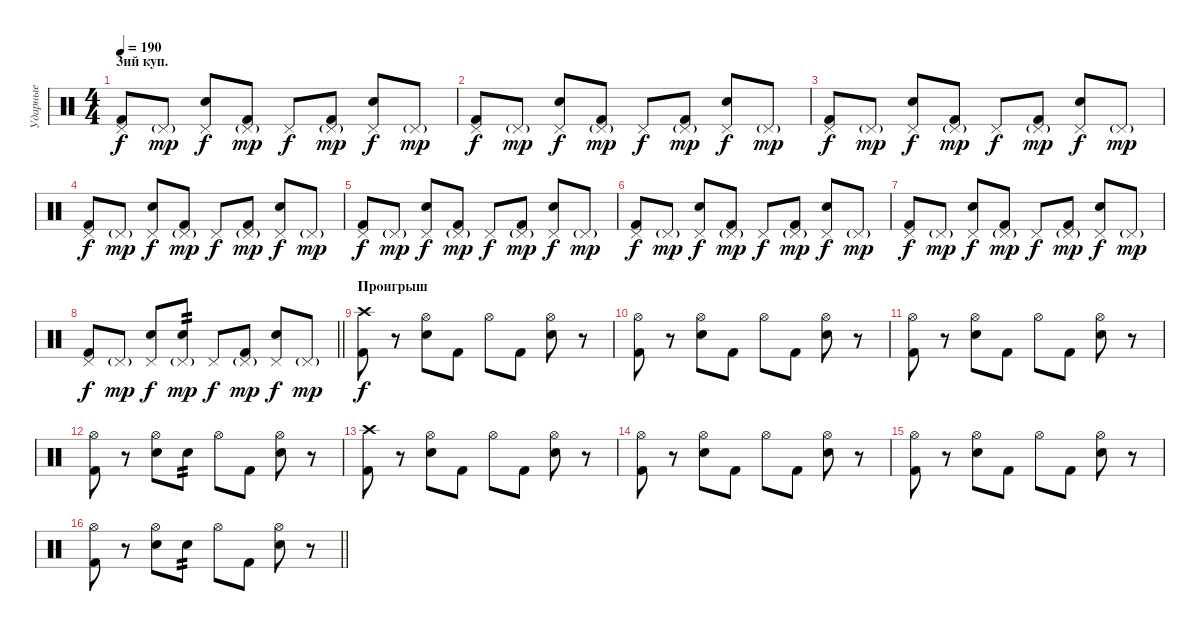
\track ("Ударные" "Ударные") {instrument percussion}
\staff {score}
\articulation defaults
\ts (4 4)
\section ("" "3ий куп.")
\tempo 190
\clef neutral
\ks c
("Pedal Hi-Hat (hit)" "Kick (hit) 2").8{dy f} "Pedal Hi-Hat (hit)"{g}.8{dy mp} ("Pedal Hi-Hat (hit)" "Electric Snare (hit)").8{dy f} ("Pedal Hi-Hat (hit)"{g} "Kick (hit) 2").8{dy mp} "Pedal Hi-Hat (hit)".8{dy f} ("Pedal Hi-Hat (hit)"{g} "Kick (hit) 2").8{dy mp} ("Pedal Hi-Hat (hit)" "Electric Snare (hit)").8{dy f} "Pedal Hi-Hat (hit)"{g}.8{dy mp} |
("Pedal Hi-Hat (hit)" "Kick (hit) 2").8{dy f} "Pedal Hi-Hat (hit)"{g}.8{dy mp} ("Pedal Hi-Hat (hit)" "Electric Snare (hit)").8{dy f} ("Pedal Hi-Hat (hit)"{g} "Kick (hit) 2").8{dy mp} "Pedal Hi-Hat (hit)".8{dy f} ("Pedal Hi-Hat (hit)"{g} "Kick (hit) 2").8{dy mp} ("Pedal Hi-Hat (hit)" "Electric Snare (hit)").8{dy f} "Pedal Hi-Hat (hit)"{g}.8{dy mp} |
("Pedal Hi-Hat (hit)" "Kick (hit) 2").8{dy f} "Pedal Hi-Hat (hit)"{g}.8{dy mp} ("Pedal Hi-Hat (hit)" "Electric Snare (hit)").8{dy f} ("Pedal Hi-Hat (hit)"{g} "Kick (hit) 2").8{dy mp} "Pedal Hi-Hat (hit)".8{dy f} ("Pedal Hi-Hat (hit)"{g} "Kick (hit) 2").8{dy mp} ("Pedal Hi-Hat (hit)" "Electric Snare (hit)").8{dy f} "Pedal Hi-Hat (hit)"{g}.8{dy mp} |
("Pedal Hi-Hat (hit)" "Kick (hit) 2").8{dy f} "Pedal Hi-Hat (hit)"{g}.8{dy mp} ("Pedal Hi-Hat (hit)" "Electric Snare (hit)").8{dy f} ("Pedal Hi-Hat (hit)"{g} "Kick (hit) 2").8{dy mp} "Pedal Hi-Hat (hit)".8{dy f} ("Pedal Hi-Hat (hit)"{g} "Kick (hit) 2").8{dy mp} ("Pedal Hi-Hat (hit)" "Electric Snare (hit)").8{dy f} "Pedal Hi-Hat (hit)"{g}.8{dy mp} |
("Pedal Hi-Hat (hit)" "Kick (hit) 2").8{dy f} "Pedal Hi-Hat (hit)"{g}.8{dy mp} ("Pedal Hi-Hat (hit)" "Electric Snare (hit)").8{dy f} ("Pedal Hi-Hat (hit)"{g} "Kick (hit) 2").8{dy mp} "Pedal Hi-Hat (hit)".8{dy f} ("Pedal Hi-Hat (hit)"{g} "Kick (hit) 2").8{dy mp} ("Pedal Hi-Hat (hit)" "Electric Snare (hit)").8{dy f} "Pedal Hi-Hat (hit)"{g}.8{dy mp} |
("Pedal Hi-Hat (hit)" "Kick (hit) 2").8{dy f} "Pedal Hi-Hat (hit)"{g}.8{dy mp} ("Pedal Hi-Hat (hit)" "Electric Snare (hit)").8{dy f} ("Pedal Hi-Hat (hit)"{g} "Kick (hit) 2").8{dy mp} "Pedal Hi-Hat (hit)".8{dy f} ("Pedal Hi-Hat (hit)"{g} "Kick (hit) 2").8{dy mp} ("Pedal Hi-Hat (hit)" "Electric Snare (hit)").8{dy f} "Pedal Hi-Hat (hit)"{g}.8{dy mp} |
("Pedal Hi-Hat (hit)" "Kick (hit) 2").8{dy f} "Pedal Hi-Hat (hit)"{g}.8{dy mp} ("Pedal Hi-Hat (hit)" "Electric Snare (hit)").8{dy f} ("Pedal Hi-Hat (hit)"{g} "Kick (hit) 2").8{dy mp} "Pedal Hi-Hat (hit)".8{dy f} ("Pedal Hi-Hat (hit)"{g} "Kick (hit) 2").8{dy mp} ("Pedal Hi-Hat (hit)" "Electric Snare (hit)").8{dy f} "Pedal Hi-Hat (hit)"{g}.8{dy mp} |
\barLineRight lightlight
("Pedal Hi-Hat (hit)" "Kick (hit) 2").8{dy f} "Pedal Hi-Hat (hit)"{g}.8{dy mp} ("Pedal Hi-Hat (hit)" "Electric Snare (hit)").8{dy f} ("Pedal Hi-Hat (hit)"{g} "Electric Snare (hit)").8{tp 2 dy mp} "Pedal Hi-Hat (hit)".8{dy f} ("Pedal Hi-Hat (hit)"{g} "Kick (hit) 2").8{dy mp} ("Pedal Hi-Hat (hit)" "Electric Snare (hit)").8{dy f} "Pedal Hi-Hat (hit)"{g}.8{dy mp} |
\section ("" "Проигрыш")
("Crash high (hit)" "Kick (hit) 2").8{dy f} r.8 ("Hi-Hat (open)" "Electric Snare (hit)").8 "Kick (hit) 2".8 "Hi-Hat (open)".8 "Kick (hit) 2".8 ("Hi-Hat (open)" "Electric Snare (hit)").8 r.8 |
("Hi-Hat (open)" "Kick (hit) 2").8 r.8 ("Hi-Hat (open)" "Electric Snare (hit)").8 "Kick (hit) 2".8 "Hi-Hat (open)".8 "Kick (hit) 2".8 ("Hi-Hat (open)" "Electric Snare (hit)").8 r.8 |
("Hi-Hat (open)" "Kick (hit) 2").8 r.8 ("Hi-Hat (open)" "Electric Snare (hit)").8 "Kick (hit) 2".8 "Hi-Hat (open)".8 "Kick (hit) 2".8 ("Hi-Hat (open)" "Electric Snare (hit)").8 r.8 |
("Hi-Hat (open)" "Kick (hit) 2").8 r.8 ("Hi-Hat (open)" "Electric Snare (hit)").8 "Electric Snare (hit)".8{tp 2} "Hi-Hat (open)".8 "Kick (hit) 2".8 ("Hi-Hat (open)" "Electric Snare (hit)").8 r.8 |
("Crash high (hit)" "Kick (hit) 2").8 r.8 ("Hi-Hat (open)" "Electric Snare (hit)").8 "Kick (hit) 2".8 "Hi-Hat (open)".8 "Kick (hit) 2".8 ("Hi-Hat (open)" "Electric Snare (hit)").8 r.8 |
("Hi-Hat (open)" "Kick (hit) 2").8 r.8 ("Hi-Hat (open)" "Electric Snare (hit)").8 "Kick (hit) 2".8 "Hi-Hat (open)".8 "Kick (hit) 2".8 ("Hi-Hat (open)" "Electric Snare (hit)").8 r.8 |
("Hi-Hat (open)" "Kick (hit) 2").8 r.8 ("Hi-Hat (open)" "Electric Snare (hit)").8 "Kick (hit) 2".8 "Hi-Hat (open)".8 "Kick (hit) 2".8 ("Hi-Hat (open)" "Electric Snare (hit)").8 r.8 |
\barLineRight lightlight
("Hi-Hat (open)" "Kick (hit) 2").8 r.8 ("Hi-Hat (open)" "Electric Snare (hit)").8 "Electric Snare (hit)".8{tp 2} "Hi-Hat (open)".8 "Kick (hit) 2".8 ("Hi-Hat (open)" "Electric Snare (hit)").8 r.8
